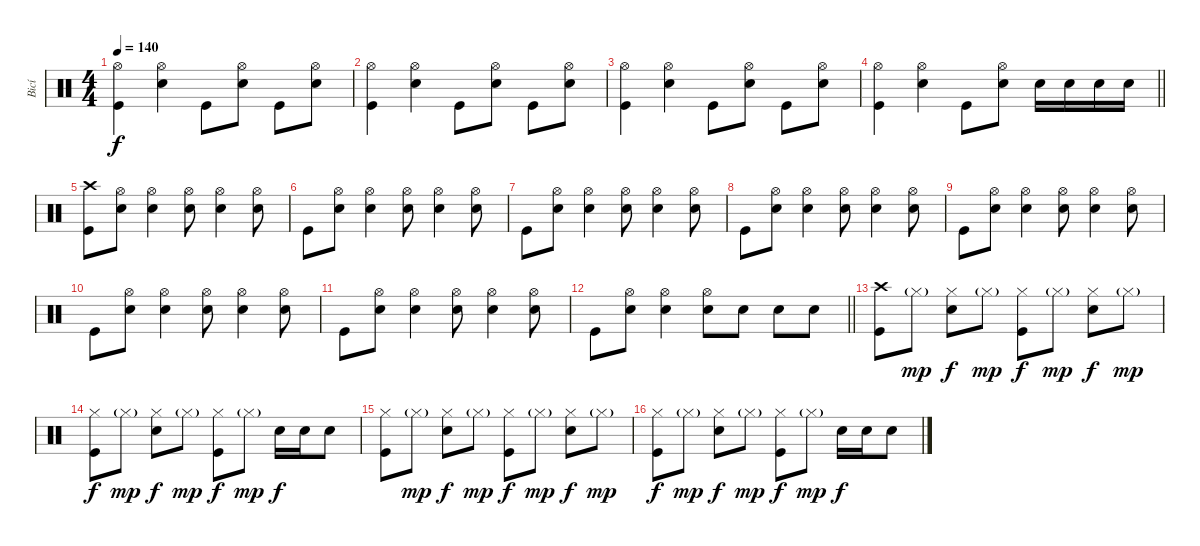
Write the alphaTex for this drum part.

\track ("Bicí" "Bicí") {instrument percussion}
\staff {score}
\articulation defaults
\ts (4 4)
\tempo 140
\clef neutral
\ks c
("Hi-Hat (open)" "Kick (hit)").4{dy f} ("Hi-Hat (open)" "Electric Snare (hit)").4 "Kick (hit)".8 ("Hi-Hat (open)" "Electric Snare (hit)").8 "Kick (hit)".8 ("Hi-Hat (open)" "Electric Snare (hit)").8 |
("Hi-Hat (open)" "Kick (hit)").4 ("Hi-Hat (open)" "Electric Snare (hit)").4 "Kick (hit)".8 ("Hi-Hat (open)" "Electric Snare (hit)").8 "Kick (hit)".8 ("Hi-Hat (open)" "Electric Snare (hit)").8 |
("Hi-Hat (open)" "Kick (hit)").4 ("Hi-Hat (open)" "Electric Snare (hit)").4 "Kick (hit)".8 ("Hi-Hat (open)" "Electric Snare (hit)").8 "Kick (hit)".8 ("Hi-Hat (open)" "Electric Snare (hit)").8 |
\barLineRight lightlight
("Hi-Hat (open)" "Kick (hit)").4 ("Hi-Hat (open)" "Electric Snare (hit)").4 "Kick (hit)".8 ("Hi-Hat (open)" "Electric Snare (hit)").8 "Electric Snare (hit)".16 "Electric Snare (hit)".16 "Electric Snare (hit)".16 "Electric Snare (hit)".16 |
\section ("" "")
("Crash high (hit)" "Kick (hit)").8 ("Hi-Hat (open)" "Electric Snare (hit)").8 ("Hi-Hat (open)" "Electric Snare (hit)").4 ("Hi-Hat (open)" "Electric Snare (hit)").8 ("Hi-Hat (open)" "Electric Snare (hit)").4 ("Hi-Hat (open)" "Electric Snare (hit)").8 |
"Kick (hit)".8 ("Hi-Hat (open)" "Electric Snare (hit)").8 ("Hi-Hat (open)" "Electric Snare (hit)").4 ("Hi-Hat (open)" "Electric Snare (hit)").8 ("Hi-Hat (open)" "Electric Snare (hit)").4 ("Hi-Hat (open)" "Electric Snare (hit)").8 |
"Kick (hit)".8 ("Hi-Hat (open)" "Electric Snare (hit)").8 ("Hi-Hat (open)" "Electric Snare (hit)").4 ("Hi-Hat (open)" "Electric Snare (hit)").8 ("Hi-Hat (open)" "Electric Snare (hit)").4 ("Hi-Hat (open)" "Electric Snare (hit)").8 |
"Kick (hit)".8 ("Hi-Hat (open)" "Electric Snare (hit)").8 ("Hi-Hat (open)" "Electric Snare (hit)").4 ("Hi-Hat (open)" "Electric Snare (hit)").8 ("Hi-Hat (open)" "Electric Snare (hit)").4 ("Hi-Hat (open)" "Electric Snare (hit)").8 |
"Kick (hit)".8 ("Hi-Hat (open)" "Electric Snare (hit)").8 ("Hi-Hat (open)" "Electric Snare (hit)").4 ("Hi-Hat (open)" "Electric Snare (hit)").8 ("Hi-Hat (open)" "Electric Snare (hit)").4 ("Hi-Hat (open)" "Electric Snare (hit)").8 |
"Kick (hit)".8 ("Hi-Hat (open)" "Electric Snare (hit)").8 ("Hi-Hat (open)" "Electric Snare (hit)").4 ("Hi-Hat (open)" "Electric Snare (hit)").8 ("Hi-Hat (open)" "Electric Snare (hit)").4 ("Hi-Hat (open)" "Electric Snare (hit)").8 |
"Kick (hit)".8 ("Hi-Hat (open)" "Electric Snare (hit)").8 ("Hi-Hat (open)" "Electric Snare (hit)").4 ("Hi-Hat (open)" "Electric Snare (hit)").8 ("Hi-Hat (open)" "Electric Snare (hit)").4 ("Hi-Hat (open)" "Electric Snare (hit)").8 |
\barLineRight lightlight "Kick (hit)".8
("Hi-Hat (open)" "Electric Snare (hit)").8 ("Hi-Hat (open)" "Electric Snare (hit)").4 ("Hi-Hat (open)" "Electric Snare (hit)").8 "Electric Snare (hit)".8 "Electric Snare (hit)".8 "Electric Snare (hit)".8 |
\section ("" "")
("Crash high (hit)" "Kick (hit)").8 "Hi-Hat (closed)"{g}.8{dy mp} ("Hi-Hat (closed)" "Electric Snare (hit)").8{dy f} "Hi-Hat (closed)"{g}.8{dy mp} ("Hi-Hat (closed)" "Kick (hit)").8{dy f} "Hi-Hat (closed)"{g}.8{dy mp} ("Hi-Hat (closed)" "Electric Snare (hit)").8{dy f} "Hi-Hat (closed)"{g}.8{dy mp} |
("Hi-Hat (closed)" "Kick (hit)").8{dy f} "Hi-Hat (closed)"{g}.8{dy mp} ("Hi-Hat (closed)" "Electric Snare (hit)").8{dy f} "Hi-Hat (closed)"{g}.8{dy mp} ("Hi-Hat (closed)" "Kick (hit)").8{dy f} "Hi-Hat (closed)"{g}.8{dy mp} "Electric Snare (hit)".16{dy f} "Electric Snare (hit)".16 "Electric Snare (hit)".8 |
("Hi-Hat (closed)" "Kick (hit)").8 "Hi-Hat (closed)"{g}.8{dy mp} ("Hi-Hat (closed)" "Electric Snare (hit)").8{dy f} "Hi-Hat (closed)"{g}.8{dy mp} ("Hi-Hat (closed)" "Kick (hit)").8{dy f} "Hi-Hat (closed)"{g}.8{dy mp} ("Hi-Hat (closed)" "Electric Snare (hit)").8{dy f} "Hi-Hat (closed)"{g}.8{dy mp} |
("Hi-Hat (closed)" "Kick (hit)").8{dy f} "Hi-Hat (closed)"{g}.8{dy mp} ("Hi-Hat (closed)" "Electric Snare (hit)").8{dy f} "Hi-Hat (closed)"{g}.8{dy mp} ("Hi-Hat (closed)" "Kick (hit)").8{dy f} "Hi-Hat (closed)"{g}.8{dy mp} "Electric Snare (hit)".16{dy f} "Electric Snare (hit)".16 "Electric Snare (hit)".8
